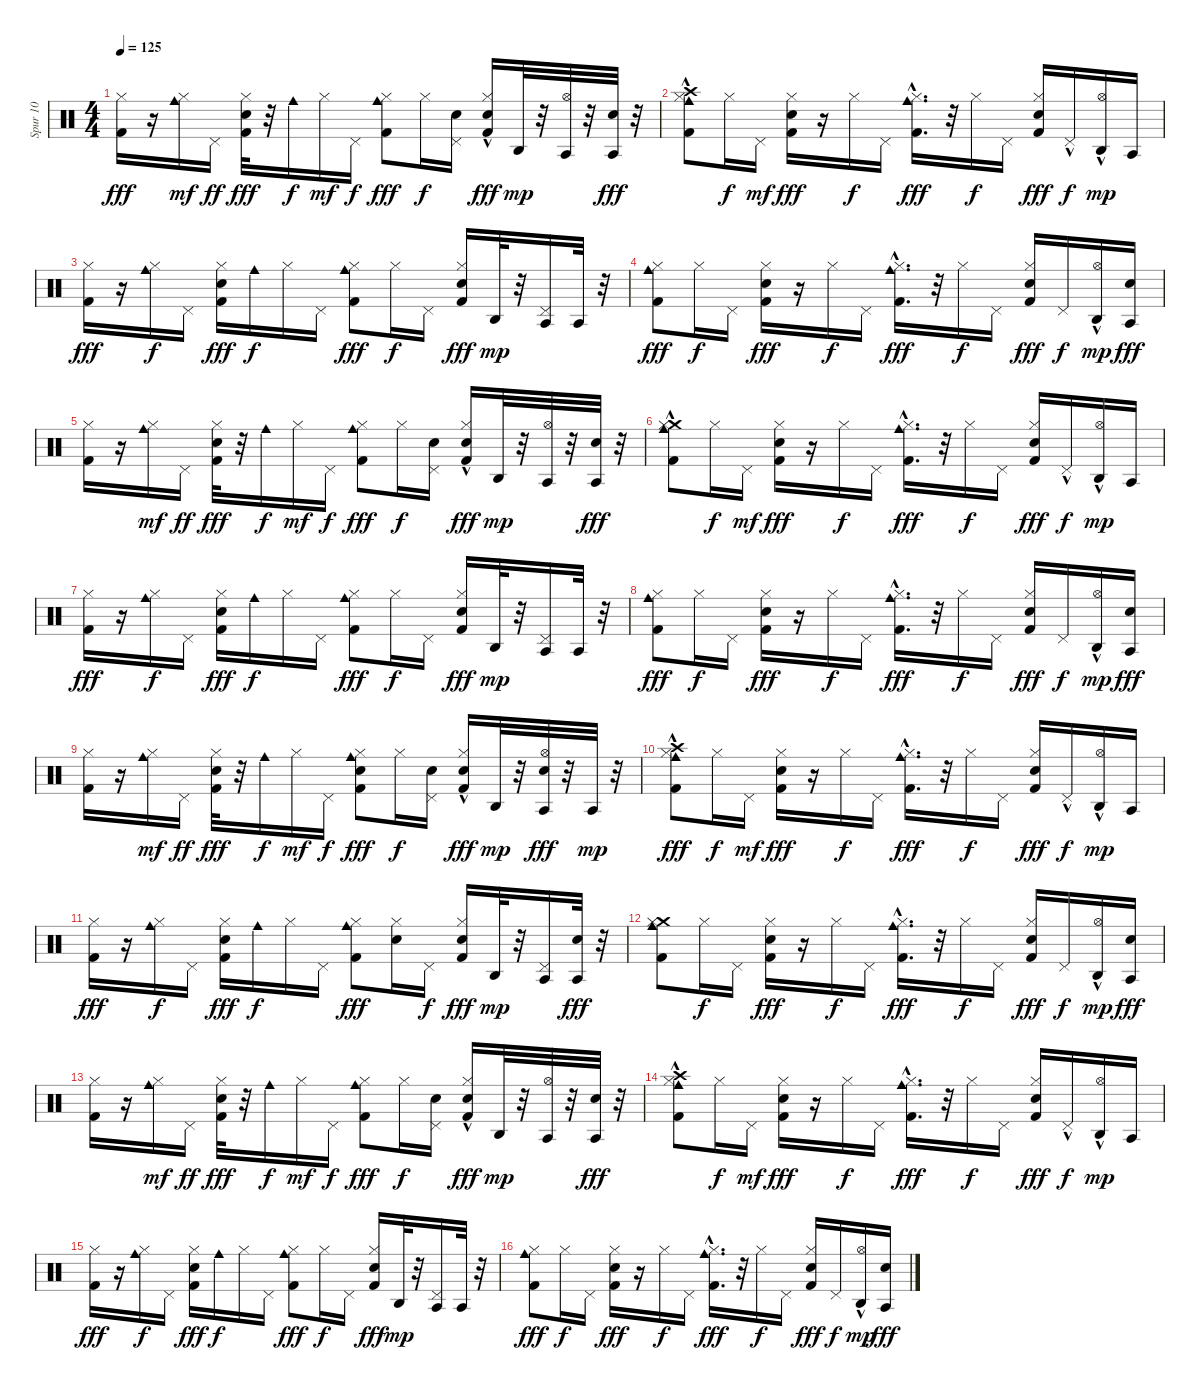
\track ("Spur 10" "Spur 10") {instrument percussion}
\staff {score}
\articulation defaults
\ts (4 4)
\tempo 125
\clef neutral
\ks c
("Kick (hit) 2" "Hi-Hat (closed)").16{dy fff} r.16 ("Cowbell medium (hit)" "Hi-Hat (closed)").16{dy mf} "Pedal Hi-Hat (hit)".16{dy ff} ("Electric Snare (hit)" "Kick (hit) 2" "Hi-Hat (closed)").32{dy fff} r.32 "Cowbell medium (hit)".16{dy f} "Hi-Hat (closed)".16{dy mf} "Pedal Hi-Hat (hit)".16{dy f} ("Cowbell medium (hit)" "Hi-Hat (closed)" "Kick (hit) 2").8{dy fff} "Hi-Hat (closed)".16{dy f} ("Pedal Hi-Hat (hit)" "Electric Snare (hit)").16 ("Hi-Hat (closed)" "Kick (hit) 2"{hac} "Electric Snare (hit)").16{dy fff} "Agogo high (hit)".32{dy mp} r.32 ("Agogo tow (hit)" "Hi-Hat (open)").32 r.32 ("Agogo tow (hit)" "Electric Snare (hit)").32{dy fff} r.32 |
("Cowbell medium (hit)" "Crash high (hit)"{hac} "Hi-Hat (closed)" "Kick (hit) 2").8 "Hi-Hat (closed)".16{dy f} "Pedal Hi-Hat (hit)".16{dy mf} ("Electric Snare (hit)" "Kick (hit) 2" "Hi-Hat (closed)").16{dy fff} r.16 "Hi-Hat (closed)".16{dy f} "Pedal Hi-Hat (hit)".16 ("Cowbell medium (hit)"{hac} "Kick (hit) 2" "Hi-Hat (closed)").16{d dy fff} r.32 "Hi-Hat (closed)".16{dy f} "Pedal Hi-Hat (hit)".16 ("Kick (hit) 2" "Electric Snare (hit)" "Hi-Hat (closed)").16{dy fff} "Pedal Hi-Hat (hit)"{hac}.16{dy f} ("Agogo high (hit)" "Hi-Hat (open)"{hac}).16{dy mp} "Agogo tow (hit)".16 |
("Kick (hit) 2" "Hi-Hat (closed)").16{dy fff} r.16 ("Cowbell medium (hit)" "Hi-Hat (closed)").16{dy f} "Pedal Hi-Hat (hit)".16 ("Hi-Hat (closed)" "Kick (hit) 2" "Electric Snare (hit)").16{dy fff} "Cowbell medium (hit)".16{dy f} "Hi-Hat (closed)".16 "Pedal Hi-Hat (hit)".16 ("Cowbell medium (hit)" "Kick (hit) 2" "Hi-Hat (closed)").8{dy fff} "Hi-Hat (closed)".16{dy f} "Pedal Hi-Hat (hit)".16 ("Electric Snare (hit)" "Kick (hit) 2" "Hi-Hat (closed)").16{dy fff} "Agogo high (hit)".32{dy mp} r.32 ("Agogo tow (hit)" "Pedal Hi-Hat (hit)").16 "Agogo tow (hit)".32 r.32 |
("Cowbell medium (hit)" "Kick (hit) 2" "Hi-Hat (closed)").8{dy fff} "Hi-Hat (closed)".16{dy f} "Pedal Hi-Hat (hit)".16 ("Electric Snare (hit)" "Kick (hit) 2" "Hi-Hat (closed)").16{dy fff} r.16 "Hi-Hat (closed)".16{dy f} "Pedal Hi-Hat (hit)".16 ("Cowbell medium (hit)"{hac} "Hi-Hat (closed)" "Kick (hit) 2").16{d dy fff} r.32 "Hi-Hat (closed)".16{dy f} "Pedal Hi-Hat (hit)".16 ("Kick (hit) 2" "Electric Snare (hit)" "Hi-Hat (closed)").16{dy fff} "Pedal Hi-Hat (hit)".16{dy f} ("Agogo high (hit)" "Hi-Hat (open)"{hac}).16{dy mp} ("Agogo tow (hit)" "Electric Snare (hit)").16{dy fff} |
("Kick (hit) 2" "Hi-Hat (closed)").16 r.16 ("Cowbell medium (hit)" "Hi-Hat (closed)").16{dy mf} "Pedal Hi-Hat (hit)".16{dy ff} ("Electric Snare (hit)" "Kick (hit) 2" "Hi-Hat (closed)").32{dy fff} r.32 "Cowbell medium (hit)".16{dy f} "Hi-Hat (closed)".16{dy mf} "Pedal Hi-Hat (hit)".16{dy f} ("Cowbell medium (hit)" "Hi-Hat (closed)" "Kick (hit) 2").8{dy fff} "Hi-Hat (closed)".16{dy f} ("Pedal Hi-Hat (hit)" "Electric Snare (hit)").16 ("Hi-Hat (closed)" "Kick (hit) 2"{hac} "Electric Snare (hit)").16{dy fff} "Agogo high (hit)".32{dy mp} r.32 ("Agogo tow (hit)" "Hi-Hat (open)").32 r.32 ("Agogo tow (hit)" "Electric Snare (hit)").32{dy fff} r.32 |
("Cowbell medium (hit)" "Crash medium (hit)"{hac} "Hi-Hat (closed)" "Kick (hit) 2").8 "Hi-Hat (closed)".16{dy f} "Pedal Hi-Hat (hit)".16{dy mf} ("Electric Snare (hit)" "Kick (hit) 2" "Hi-Hat (closed)").16{dy fff} r.16 "Hi-Hat (closed)".16{dy f} "Pedal Hi-Hat (hit)".16 ("Cowbell medium (hit)"{hac} "Kick (hit) 2" "Hi-Hat (closed)").16{d dy fff} r.32 "Hi-Hat (closed)".16{dy f} "Pedal Hi-Hat (hit)".16 ("Kick (hit) 2" "Electric Snare (hit)" "Hi-Hat (closed)").16{dy fff} "Pedal Hi-Hat (hit)"{hac}.16{dy f} ("Agogo high (hit)" "Hi-Hat (open)"{hac}).16{dy mp} "Agogo tow (hit)".16 |
("Kick (hit) 2" "Hi-Hat (closed)").16{dy fff} r.16 ("Cowbell medium (hit)" "Hi-Hat (closed)").16{dy f} "Pedal Hi-Hat (hit)".16 ("Hi-Hat (closed)" "Kick (hit) 2" "Electric Snare (hit)").16{dy fff} "Cowbell medium (hit)".16{dy f} "Hi-Hat (closed)".16 "Pedal Hi-Hat (hit)".16 ("Cowbell medium (hit)" "Kick (hit) 2" "Hi-Hat (closed)").8{dy fff} "Hi-Hat (closed)".16{dy f} "Pedal Hi-Hat (hit)".16 ("Electric Snare (hit)" "Kick (hit) 2" "Hi-Hat (closed)").16{dy fff} "Agogo high (hit)".32{dy mp} r.32 ("Agogo tow (hit)" "Pedal Hi-Hat (hit)").16 "Agogo tow (hit)".32 r.32 |
("Cowbell medium (hit)" "Kick (hit) 2" "Hi-Hat (closed)").8{dy fff} "Hi-Hat (closed)".16{dy f} "Pedal Hi-Hat (hit)".16 ("Electric Snare (hit)" "Kick (hit) 2" "Hi-Hat (closed)").16{dy fff} r.16 "Hi-Hat (closed)".16{dy f} "Pedal Hi-Hat (hit)".16 ("Cowbell medium (hit)"{hac} "Hi-Hat (closed)" "Kick (hit) 2").16{d dy fff} r.32 "Hi-Hat (closed)".16{dy f} "Pedal Hi-Hat (hit)".16 ("Kick (hit) 2" "Electric Snare (hit)" "Hi-Hat (closed)").16{dy fff} "Pedal Hi-Hat (hit)".16{dy f} ("Agogo high (hit)" "Hi-Hat (open)"{hac}).16{dy mp} ("Agogo tow (hit)" "Electric Snare (hit)").16{dy fff} |
("Kick (hit) 2" "Hi-Hat (closed)").16 r.16 ("Cowbell medium (hit)" "Hi-Hat (closed)").16{dy mf} "Pedal Hi-Hat (hit)".16{dy ff} ("Electric Snare (hit)" "Kick (hit) 2" "Hi-Hat (closed)").32{dy fff} r.32 "Cowbell medium (hit)".16{dy f} "Hi-Hat (closed)".16{dy mf} "Pedal Hi-Hat (hit)".16{dy f} ("Cowbell medium (hit)" "Electric Snare (hit)" "Hi-Hat (closed)" "Kick (hit) 2").8{dy fff} "Hi-Hat (closed)".16{dy f} ("Pedal Hi-Hat (hit)" "Electric Snare (hit)").16 ("Hi-Hat (closed)" "Kick (hit) 2"{hac} "Electric Snare (hit)").16{dy fff} "Agogo high (hit)".32{dy mp} r.32 ("Agogo tow (hit)" "Electric Snare (hit)" "Hi-Hat (open)").32{dy fff} r.32 "Agogo tow (hit)".32{dy mp} r.32 |
("Cowbell medium (hit)" "Crash high (hit)"{hac} "Hi-Hat (closed)" "Kick (hit) 2").8{dy fff} "Hi-Hat (closed)".16{dy f} "Pedal Hi-Hat (hit)".16{dy mf} ("Electric Snare (hit)" "Kick (hit) 2" "Hi-Hat (closed)").16{dy fff} r.16 "Hi-Hat (closed)".16{dy f} "Pedal Hi-Hat (hit)".16 ("Cowbell medium (hit)"{hac} "Kick (hit) 2" "Hi-Hat (closed)").16{d dy fff} r.32 "Hi-Hat (closed)".16{dy f} "Pedal Hi-Hat (hit)".16 ("Kick (hit) 2" "Electric Snare (hit)" "Hi-Hat (closed)").16{dy fff} "Pedal Hi-Hat (hit)"{hac}.16{dy f} ("Agogo high (hit)" "Hi-Hat (open)"{hac}).16{dy mp} "Agogo tow (hit)".16 |
("Kick (hit) 2" "Hi-Hat (closed)").16{dy fff} r.16 ("Cowbell medium (hit)" "Hi-Hat (closed)").16{dy f} "Pedal Hi-Hat (hit)".16 ("Hi-Hat (closed)" "Kick (hit) 2" "Electric Snare (hit)").16{dy fff} "Cowbell medium (hit)".16{dy f} "Hi-Hat (closed)".16 "Pedal Hi-Hat (hit)".16 ("Cowbell medium (hit)" "Kick (hit) 2" "Hi-Hat (closed)").8{dy fff} ("Hi-Hat (closed)" "Electric Snare (hit)").16 "Pedal Hi-Hat (hit)".16{dy f} ("Electric Snare (hit)" "Kick (hit) 2" "Hi-Hat (closed)").16{dy fff} "Agogo high (hit)".32{dy mp} r.32 ("Agogo tow (hit)" "Pedal Hi-Hat (hit)").16 ("Agogo tow (hit)" "Electric Snare (hit)").32{dy fff} r.32 |
("Cowbell medium (hit)" "Crash medium (hit)" "Kick (hit) 2" "Hi-Hat (closed)").8 "Hi-Hat (closed)".16{dy f} "Pedal Hi-Hat (hit)".16 ("Electric Snare (hit)" "Kick (hit) 2" "Hi-Hat (closed)").16{dy fff} r.16 "Hi-Hat (closed)".16{dy f} "Pedal Hi-Hat (hit)".16 ("Cowbell medium (hit)"{hac} "Hi-Hat (closed)" "Kick (hit) 2").16{d dy fff} r.32 "Hi-Hat (closed)".16{dy f} "Pedal Hi-Hat (hit)".16 ("Kick (hit) 2" "Electric Snare (hit)" "Hi-Hat (closed)").16{dy fff} "Pedal Hi-Hat (hit)".16{dy f} ("Agogo high (hit)" "Hi-Hat (open)"{hac}).16{dy mp} ("Agogo tow (hit)" "Electric Snare (hit)").16{dy fff} |
("Kick (hit) 2" "Hi-Hat (closed)").16 r.16 ("Cowbell medium (hit)" "Hi-Hat (closed)").16{dy mf} "Pedal Hi-Hat (hit)".16{dy ff} ("Electric Snare (hit)" "Kick (hit) 2" "Hi-Hat (closed)").32{dy fff} r.32 "Cowbell medium (hit)".16{dy f} "Hi-Hat (closed)".16{dy mf} "Pedal Hi-Hat (hit)".16{dy f} ("Cowbell medium (hit)" "Hi-Hat (closed)" "Kick (hit) 2").8{dy fff} "Hi-Hat (closed)".16{dy f} ("Pedal Hi-Hat (hit)" "Electric Snare (hit)").16 ("Hi-Hat (closed)" "Kick (hit) 2"{hac} "Electric Snare (hit)").16{dy fff} "Agogo high (hit)".32{dy mp} r.32 ("Agogo tow (hit)" "Hi-Hat (open)").32 r.32 ("Agogo tow (hit)" "Electric Snare (hit)").32{dy fff} r.32 |
("Cowbell medium (hit)" "Crash high (hit)"{hac} "Hi-Hat (closed)" "Kick (hit) 2").8 "Hi-Hat (closed)".16{dy f} "Pedal Hi-Hat (hit)".16{dy mf} ("Electric Snare (hit)" "Kick (hit) 2" "Hi-Hat (closed)").16{dy fff} r.16 "Hi-Hat (closed)".16{dy f} "Pedal Hi-Hat (hit)".16 ("Cowbell medium (hit)"{hac} "Kick (hit) 2" "Hi-Hat (closed)").16{d dy fff} r.32 "Hi-Hat (closed)".16{dy f} "Pedal Hi-Hat (hit)".16 ("Kick (hit) 2" "Electric Snare (hit)" "Hi-Hat (closed)").16{dy fff} "Pedal Hi-Hat (hit)"{hac}.16{dy f} ("Agogo high (hit)" "Hi-Hat (open)"{hac}).16{dy mp} "Agogo tow (hit)".16 |
("Kick (hit) 2" "Hi-Hat (closed)").16{dy fff} r.16 ("Cowbell medium (hit)" "Hi-Hat (closed)").16{dy f} "Pedal Hi-Hat (hit)".16 ("Hi-Hat (closed)" "Kick (hit) 2" "Electric Snare (hit)").16{dy fff} "Cowbell medium (hit)".16{dy f} "Hi-Hat (closed)".16 "Pedal Hi-Hat (hit)".16 ("Cowbell medium (hit)" "Kick (hit) 2" "Hi-Hat (closed)").8{dy fff} "Hi-Hat (closed)".16{dy f} "Pedal Hi-Hat (hit)".16 ("Electric Snare (hit)" "Kick (hit) 2" "Hi-Hat (closed)").16{dy fff} "Agogo high (hit)".32{dy mp} r.32 ("Agogo tow (hit)" "Pedal Hi-Hat (hit)").16 "Agogo tow (hit)".32 r.32 |
("Cowbell medium (hit)" "Kick (hit) 2" "Hi-Hat (closed)").8{dy fff} "Hi-Hat (closed)".16{dy f} "Pedal Hi-Hat (hit)".16 ("Electric Snare (hit)" "Kick (hit) 2" "Hi-Hat (closed)").16{dy fff} r.16 "Hi-Hat (closed)".16{dy f} "Pedal Hi-Hat (hit)".16 ("Cowbell medium (hit)"{hac} "Hi-Hat (closed)" "Kick (hit) 2").16{d dy fff} r.32 "Hi-Hat (closed)".16{dy f} "Pedal Hi-Hat (hit)".16 ("Kick (hit) 2" "Electric Snare (hit)" "Hi-Hat (closed)").16{dy fff} "Pedal Hi-Hat (hit)".16{dy f} ("Agogo high (hit)" "Hi-Hat (open)"{hac}).16{dy mp} ("Agogo tow (hit)" "Electric Snare (hit)").16{dy fff}
